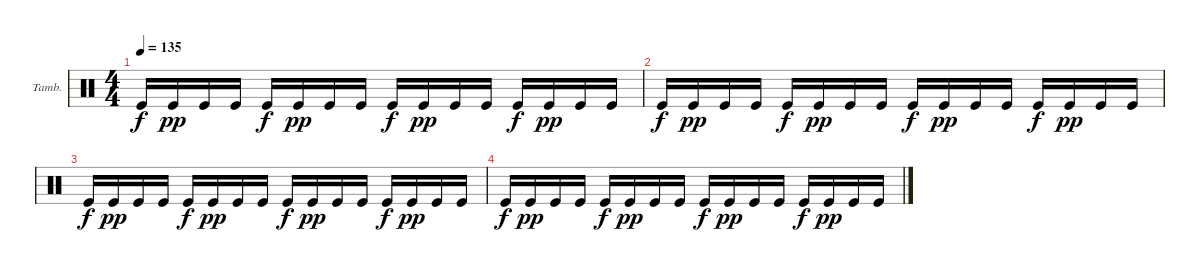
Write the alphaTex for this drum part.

\defaultSystemsLayout 4
\bracketExtendMode groupsimilarinstruments
\firstSystemTrackNameOrientation horizontal
\otherSystemsTrackNameOrientation horizontal
\track ("Tambourine" "Tamb.") {instrument percussion}
\staff {score}
\articulation defaults
\ts (4 4)
\tempo 135
\clef neutral
\scale
0.333333
\ks c "Kick (hit)".16{dy f} "Kick (hit)".16{dy pp} "Kick (hit)".16 "Kick (hit)".16 "Kick (hit)".16{dy f} "Kick (hit)".16{dy pp} "Kick (hit)".16 "Kick (hit)".16 "Kick (hit)".16{dy f} "Kick (hit)".16{dy pp} "Kick (hit)".16 "Kick (hit)".16 "Kick (hit)".16{dy f} "Kick (hit)".16{dy pp} "Kick (hit)".16 "Kick (hit)".16
|
\scale
0.333333 "Kick (hit)".16{dy f} "Kick (hit)".16{dy pp} "Kick (hit)".16 "Kick (hit)".16 "Kick (hit)".16{dy f} "Kick (hit)".16{dy pp} "Kick (hit)".16 "Kick (hit)".16 "Kick (hit)".16{dy f} "Kick (hit)".16{dy pp} "Kick (hit)".16 "Kick (hit)".16 "Kick (hit)".16{dy f} "Kick (hit)".16{dy pp} "Kick (hit)".16 "Kick (hit)".16 |
\scale
0.333333 "Kick (hit)".16{dy f} "Kick (hit)".16{dy pp} "Kick (hit)".16 "Kick (hit)".16 "Kick (hit)".16{dy f} "Kick (hit)".16{dy pp} "Kick (hit)".16 "Kick (hit)".16 "Kick (hit)".16{dy f} "Kick (hit)".16{dy pp} "Kick (hit)".16 "Kick (hit)".16 "Kick (hit)".16{dy f} "Kick (hit)".16{dy pp} "Kick (hit)".16 "Kick (hit)".16 |
\scale
0.333333 "Kick (hit)".16{dy f} "Kick (hit)".16{dy pp} "Kick (hit)".16 "Kick (hit)".16 "Kick (hit)".16{dy f} "Kick (hit)".16{dy pp} "Kick (hit)".16 "Kick (hit)".16 "Kick (hit)".16{dy f} "Kick (hit)".16{dy pp} "Kick (hit)".16 "Kick (hit)".16 "Kick (hit)".16{dy f} "Kick (hit)".16{dy pp} "Kick (hit)".16 "Kick (hit)".16 |
\scale
0.333333 |
\scale
0.333333 |
\scale
0.333333
